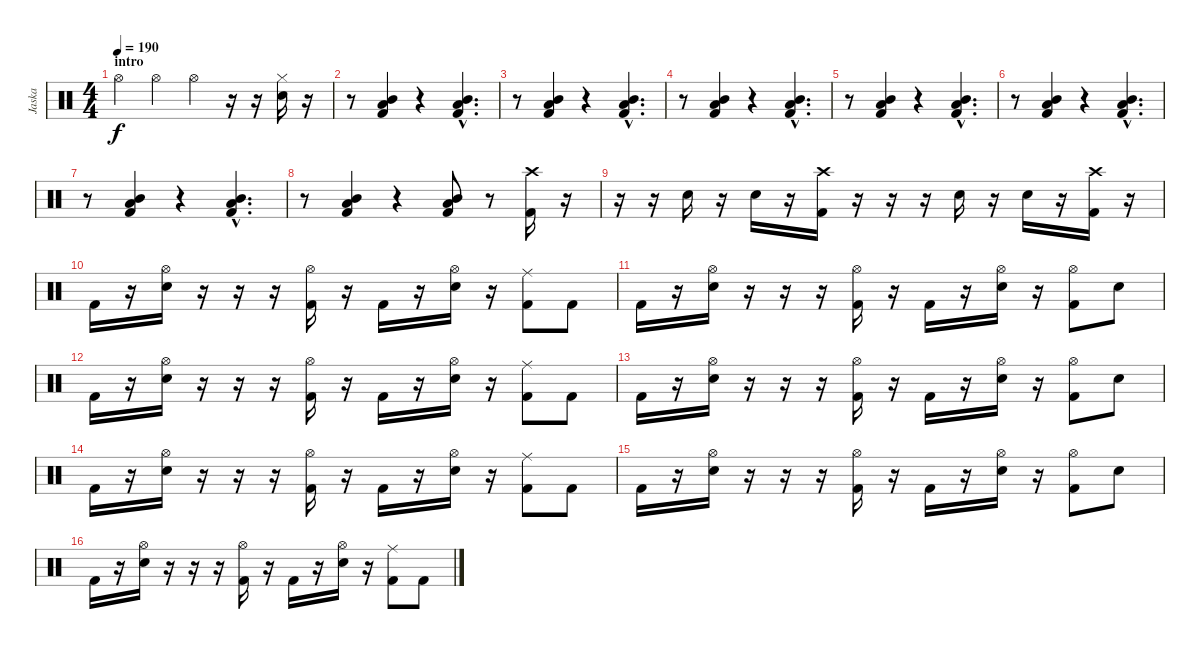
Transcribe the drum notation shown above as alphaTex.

\track ("Jaska" "Jaska") {instrument percussion}
\staff {score}
\articulation defaults
\ts (4 4)
\section ("" "intro")
\tempo 190
\clef neutral
\ks c "Hi-Hat (open)".4{dy f} "Hi-Hat (open)".4 "Hi-Hat (open)".4
r.16 r.16 ("Hi-Hat (closed)" "Electric Snare (hit)").16 r.16 |
r.8 ("Low Tom (hit)" "Mid Tom (hit)" "Kick (hit) 2").4 r.4 ("Low Tom (hit)"{hac} "Mid Tom (hit)"{hac} "Kick (hit) 2"{hac}).4{d} |
r.8 ("Low Tom (hit)" "Mid Tom (hit)" "Kick (hit) 2").4 r.4 ("Low Tom (hit)"{hac} "Mid Tom (hit)"{hac} "Kick (hit) 2"{hac}).4{d} |
r.8 ("Low Tom (hit)" "Mid Tom (hit)" "Kick (hit) 2").4 r.4 ("Low Tom (hit)"{hac} "Mid Tom (hit)"{hac} "Kick (hit) 2"{hac}).4{d} |
r.8 ("Low Tom (hit)" "Mid Tom (hit)" "Kick (hit) 2").4 r.4 ("Low Tom (hit)"{hac} "Mid Tom (hit)"{hac} "Kick (hit) 2"{hac}).4{d} |
r.8 ("Low Tom (hit)" "Mid Tom (hit)" "Kick (hit) 2").4 r.4 ("Low Tom (hit)"{hac} "Mid Tom (hit)"{hac} "Kick (hit) 2"{hac}).4{d} |
r.8 ("Low Tom (hit)" "Mid Tom (hit)" "Kick (hit) 2").4 r.4 ("Low Tom (hit)"{hac} "Mid Tom (hit)"{hac} "Kick (hit) 2"{hac}).4{d} |
r.8 ("Low Tom (hit)" "Mid Tom (hit)" "Kick (hit) 2").4 r.4 ("Low Tom (hit)" "Mid Tom (hit)" "Kick (hit) 2").8 r.8 ("Crash high (hit)" "Kick (hit) 2").16 r.16 |
r.16 r.16 "Electric Snare (hit)".16 r.16 "Electric Snare (hit)".16 r.16 ("Crash high (hit)" "Kick (hit) 2").16 r.16 r.16 r.16 "Electric Snare (hit)".16 r.16 "Electric Snare (hit)".16 r.16 ("Crash high (hit)" "Kick (hit) 2").16 r.16 |
"Kick (hit) 2".16 r.16 ("Hi-Hat (open)" "Electric Snare (hit)").16 r.16 r.16 r.16 ("Hi-Hat (open)" "Kick (hit) 2").16 r.16 "Kick (hit) 2".16 r.16 ("Hi-Hat (open)" "Electric Snare (hit)").16 r.16 ("Ride (middle)" "Kick (hit) 2").8 "Kick (hit) 2".8 |
"Kick (hit) 2".16 r.16 ("Hi-Hat (open)" "Electric Snare (hit)").16 r.16 r.16 r.16 ("Hi-Hat (open)" "Kick (hit) 2").16 r.16 "Kick (hit) 2".16 r.16 ("Hi-Hat (open)" "Electric Snare (hit)").16 r.16 ("Hi-Hat (open)" "Kick (hit) 2").8 "Electric Snare (hit)".8 |
"Kick (hit) 2".16 r.16 ("Hi-Hat (open)" "Electric Snare (hit)").16 r.16 r.16 r.16 ("Hi-Hat (open)" "Kick (hit) 2").16 r.16 "Kick (hit) 2".16 r.16 ("Hi-Hat (open)" "Electric Snare (hit)").16 r.16 ("Ride (middle)" "Kick (hit) 2").8 "Kick (hit) 2".8 |
"Kick (hit) 2".16 r.16 ("Hi-Hat (open)" "Electric Snare (hit)").16 r.16 r.16 r.16 ("Hi-Hat (open)" "Kick (hit) 2").16 r.16 "Kick (hit) 2".16 r.16 ("Hi-Hat (open)" "Electric Snare (hit)").16 r.16 ("Hi-Hat (open)" "Kick (hit) 2").8 "Electric Snare (hit)".8 |
"Kick (hit) 2".16 r.16 ("Hi-Hat (open)" "Electric Snare (hit)").16 r.16 r.16 r.16 ("Hi-Hat (open)" "Kick (hit) 2").16 r.16 "Kick (hit) 2".16 r.16 ("Hi-Hat (open)" "Electric Snare (hit)").16 r.16 ("Ride (middle)" "Kick (hit) 2").8 "Kick (hit) 2".8 |
"Kick (hit) 2".16 r.16 ("Hi-Hat (open)" "Electric Snare (hit)").16 r.16 r.16 r.16 ("Hi-Hat (open)" "Kick (hit) 2").16 r.16 "Kick (hit) 2".16 r.16 ("Hi-Hat (open)" "Electric Snare (hit)").16 r.16 ("Hi-Hat (open)" "Kick (hit) 2").8 "Electric Snare (hit)".8 |
"Kick (hit) 2".16 r.16 ("Hi-Hat (open)" "Electric Snare (hit)").16 r.16 r.16 r.16 ("Hi-Hat (open)" "Kick (hit) 2").16 r.16 "Kick (hit) 2".16 r.16 ("Hi-Hat (open)" "Electric Snare (hit)").16 r.16 ("Ride (middle)" "Kick (hit) 2").8 "Kick (hit) 2".8
